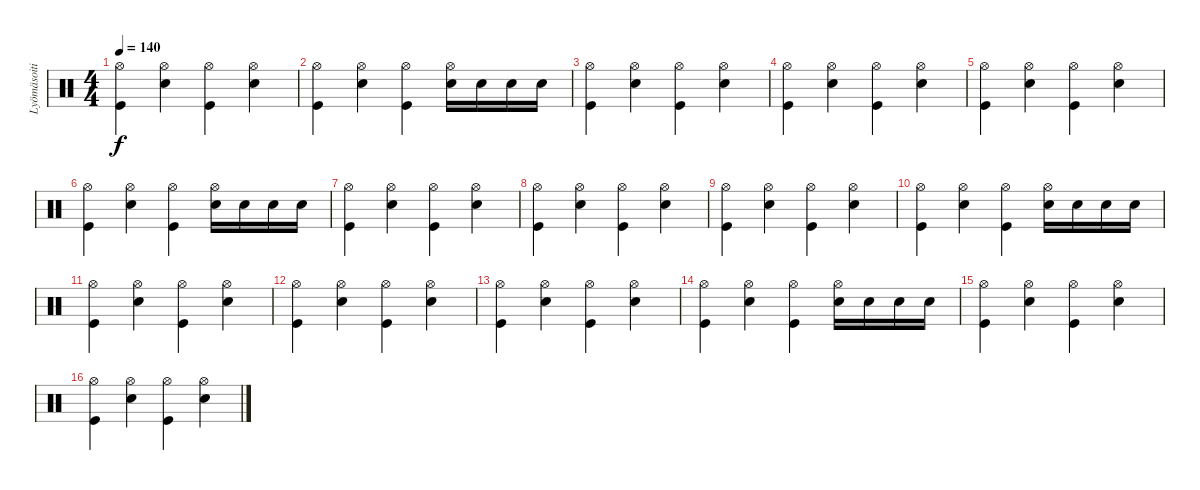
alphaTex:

\track ("Lyömäsoitin" "Lyömäsoiti") {instrument percussion}
\staff {score}
\articulation defaults
\ts (4 4)
\tempo 140
\clef neutral
\ks c
("Kick (hit)" "Hi-Hat (open)").4{dy f} ("Electric Snare (hit)" "Hi-Hat (open)").4 ("Kick (hit)" "Hi-Hat (open)").4 ("Electric Snare (hit)" "Hi-Hat (open)").4 |
("Kick (hit)" "Hi-Hat (open)").4 ("Electric Snare (hit)" "Hi-Hat (open)").4 ("Kick (hit)" "Hi-Hat (open)").4 ("Electric Snare (hit)" "Hi-Hat (open)").16 "Electric Snare (hit)".16 "Electric Snare (hit)".16 "Electric Snare (hit)".16 |
("Kick (hit)" "Hi-Hat (open)").4 ("Electric Snare (hit)" "Hi-Hat (open)").4 ("Kick (hit)" "Hi-Hat (open)").4 ("Electric Snare (hit)" "Hi-Hat (open)").4 |
("Kick (hit)" "Hi-Hat (open)").4 ("Electric Snare (hit)" "Hi-Hat (open)").4 ("Kick (hit)" "Hi-Hat (open)").4 ("Electric Snare (hit)" "Hi-Hat (open)").4 |
("Kick (hit)" "Hi-Hat (open)").4 ("Electric Snare (hit)" "Hi-Hat (open)").4 ("Kick (hit)" "Hi-Hat (open)").4 ("Electric Snare (hit)" "Hi-Hat (open)").4 |
("Kick (hit)" "Hi-Hat (open)").4 ("Electric Snare (hit)" "Hi-Hat (open)").4 ("Kick (hit)" "Hi-Hat (open)").4 ("Electric Snare (hit)" "Hi-Hat (open)").16 "Electric Snare (hit)".16 "Electric Snare (hit)".16 "Electric Snare (hit)".16 |
("Kick (hit)" "Hi-Hat (open)").4 ("Electric Snare (hit)" "Hi-Hat (open)").4 ("Kick (hit)" "Hi-Hat (open)").4 ("Electric Snare (hit)" "Hi-Hat (open)").4 |
("Kick (hit)" "Hi-Hat (open)").4 ("Electric Snare (hit)" "Hi-Hat (open)").4 ("Kick (hit)" "Hi-Hat (open)").4 ("Electric Snare (hit)" "Hi-Hat (open)").4 |
("Kick (hit)" "Hi-Hat (open)").4 ("Electric Snare (hit)" "Hi-Hat (open)").4 ("Kick (hit)" "Hi-Hat (open)").4 ("Electric Snare (hit)" "Hi-Hat (open)").4 |
("Kick (hit)" "Hi-Hat (open)").4 ("Electric Snare (hit)" "Hi-Hat (open)").4 ("Kick (hit)" "Hi-Hat (open)").4 ("Electric Snare (hit)" "Hi-Hat (open)").16 "Electric Snare (hit)".16 "Electric Snare (hit)".16 "Electric Snare (hit)".16 |
("Kick (hit)" "Hi-Hat (open)").4 ("Electric Snare (hit)" "Hi-Hat (open)").4 ("Kick (hit)" "Hi-Hat (open)").4 ("Electric Snare (hit)" "Hi-Hat (open)").4 |
("Kick (hit)" "Hi-Hat (open)").4 ("Electric Snare (hit)" "Hi-Hat (open)").4 ("Kick (hit)" "Hi-Hat (open)").4 ("Electric Snare (hit)" "Hi-Hat (open)").4 |
("Kick (hit)" "Hi-Hat (open)").4 ("Electric Snare (hit)" "Hi-Hat (open)").4 ("Kick (hit)" "Hi-Hat (open)").4 ("Electric Snare (hit)" "Hi-Hat (open)").4 |
("Kick (hit)" "Hi-Hat (open)").4 ("Electric Snare (hit)" "Hi-Hat (open)").4 ("Kick (hit)" "Hi-Hat (open)").4 ("Electric Snare (hit)" "Hi-Hat (open)").16 "Electric Snare (hit)".16 "Electric Snare (hit)".16 "Electric Snare (hit)".16 |
("Kick (hit)" "Hi-Hat (open)").4 ("Electric Snare (hit)" "Hi-Hat (open)").4 ("Kick (hit)" "Hi-Hat (open)").4 ("Electric Snare (hit)" "Hi-Hat (open)").4 |
("Kick (hit)" "Hi-Hat (open)").4 ("Electric Snare (hit)" "Hi-Hat (open)").4 ("Kick (hit)" "Hi-Hat (open)").4 ("Electric Snare (hit)" "Hi-Hat (open)").4
